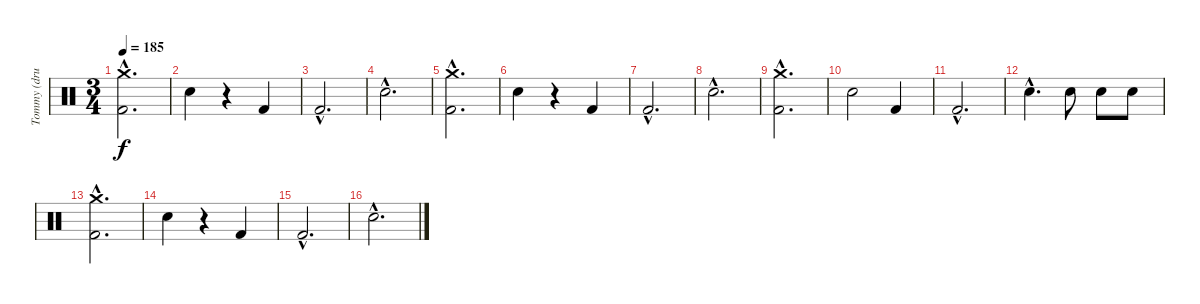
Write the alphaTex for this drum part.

\track ("Tommy (drums)" "Tommy (dru") {instrument percussion}
\staff {score}
\articulation defaults
\ts (3 4)
\tempo 185
\clef neutral
\ks c
("Crash medium (hit)"{hac} "Kick (hit) 2"{hac}).2{d dy f} |
"Electric Snare (hit)".4 r.4 "Kick (hit) 2".4 |
"Kick (hit) 2"{hac}.2{d} |
"Electric Snare (hit)"{hac}.2{d} |
("Crash medium (hit)"{hac} "Kick (hit) 2"{hac}).2{d} |
"Electric Snare (hit)".4 r.4 "Kick (hit) 2".4 |
"Kick (hit) 2"{hac}.2{d} |
"Electric Snare (hit)"{hac}.2{d} |
("Crash medium (hit)"{hac} "Kick (hit) 2"{hac}).2{d} |
"Electric Snare (hit)".2 "Kick (hit) 2".4 |
"Kick (hit) 2"{hac}.2{d} |
"Electric Snare (hit)"{hac}.4{d} "Electric Snare (hit)".8 "Electric Snare (hit)".8 "Electric Snare (hit)".8 |
("Crash medium (hit)"{hac} "Kick (hit) 2"{hac}).2{d} |
"Electric Snare (hit)".4 r.4 "Kick (hit) 2".4 |
"Kick (hit) 2"{hac}.2{d} |
"Electric Snare (hit)"{hac}.2{d}
